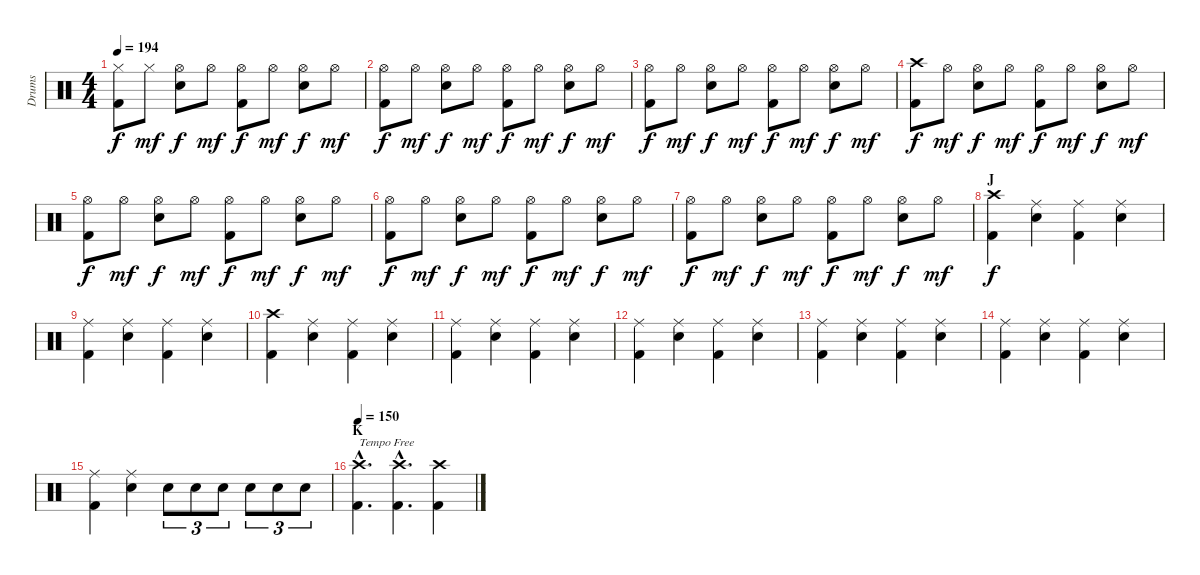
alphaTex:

\track ("Drums" "Drums") {instrument percussion}
\staff {score}
\articulation defaults
\ts (4 4)
\tempo 194
\clef neutral
\ks c
("Hi-Hat (closed)" "Kick (hit) 2").8{dy f} "Hi-Hat (closed)".8{dy mf} ("Hi-Hat (open)" "Electric Snare (hit)").8{dy f} "Hi-Hat (open)".8{dy mf} ("Hi-Hat (open)" "Kick (hit) 2").8{dy f} "Hi-Hat (open)".8{dy mf} ("Hi-Hat (open)" "Electric Snare (hit)").8{dy f} "Hi-Hat (open)".8{dy mf} |
("Hi-Hat (open)" "Kick (hit) 2").8{dy f} "Hi-Hat (open)".8{dy mf} ("Hi-Hat (open)" "Electric Snare (hit)").8{dy f} "Hi-Hat (open)".8{dy mf} ("Hi-Hat (open)" "Kick (hit) 2").8{dy f} "Hi-Hat (open)".8{dy mf} ("Hi-Hat (open)" "Electric Snare (hit)").8{dy f} "Hi-Hat (open)".8{dy mf} |
("Hi-Hat (open)" "Kick (hit) 2").8{dy f} "Hi-Hat (open)".8{dy mf} ("Hi-Hat (open)" "Electric Snare (hit)").8{dy f} "Hi-Hat (open)".8{dy mf} ("Hi-Hat (open)" "Kick (hit) 2").8{dy f} "Hi-Hat (open)".8{dy mf} ("Hi-Hat (open)" "Electric Snare (hit)").8{dy f} "Hi-Hat (open)".8{dy mf} |
("Crash high (hit)" "Kick (hit) 2").8{dy f} "Hi-Hat (open)".8{dy mf} ("Hi-Hat (open)" "Electric Snare (hit)").8{dy f} "Hi-Hat (open)".8{dy mf} ("Hi-Hat (open)" "Kick (hit) 2").8{dy f} "Hi-Hat (open)".8{dy mf} ("Hi-Hat (open)" "Electric Snare (hit)").8{dy f} "Hi-Hat (open)".8{dy mf} |
("Hi-Hat (open)" "Kick (hit) 2").8{dy f} "Hi-Hat (open)".8{dy mf} ("Hi-Hat (open)" "Electric Snare (hit)").8{dy f} "Hi-Hat (open)".8{dy mf} ("Hi-Hat (open)" "Kick (hit) 2").8{dy f} "Hi-Hat (open)".8{dy mf} ("Hi-Hat (open)" "Electric Snare (hit)").8{dy f} "Hi-Hat (open)".8{dy mf} |
("Hi-Hat (open)" "Kick (hit) 2").8{dy f} "Hi-Hat (open)".8{dy mf} ("Hi-Hat (open)" "Electric Snare (hit)").8{dy f} "Hi-Hat (open)".8{dy mf} ("Hi-Hat (open)" "Kick (hit) 2").8{dy f} "Hi-Hat (open)".8{dy mf} ("Hi-Hat (open)" "Electric Snare (hit)").8{dy f} "Hi-Hat (open)".8{dy mf} |
("Hi-Hat (open)" "Kick (hit) 2").8{dy f} "Hi-Hat (open)".8{dy mf} ("Hi-Hat (open)" "Electric Snare (hit)").8{dy f} "Hi-Hat (open)".8{dy mf} ("Hi-Hat (open)" "Kick (hit) 2").8{dy f} "Hi-Hat (open)".8{dy mf} ("Hi-Hat (open)" "Electric Snare (hit)").8{dy f} "Hi-Hat (open)".8{dy mf} |
\section ("" "J")
("Crash high (hit)" "Kick (hit) 2").4{dy f} ("Ride (middle)" "Electric Snare (hit)").4 ("Ride (middle)" "Kick (hit) 2").4 ("Ride (middle)" "Electric Snare (hit)").4 |
("Ride (middle)" "Kick (hit) 2").4 ("Ride (middle)" "Electric Snare (hit)").4 ("Ride (middle)" "Kick (hit) 2").4 ("Ride (middle)" "Electric Snare (hit)").4 |
("Crash high (hit)" "Kick (hit) 2").4 ("Ride (middle)" "Electric Snare (hit)").4 ("Ride (middle)" "Kick (hit) 2").4 ("Ride (middle)" "Electric Snare (hit)").4 |
("Ride (middle)" "Kick (hit) 2").4 ("Ride (middle)" "Electric Snare (hit)").4 ("Ride (middle)" "Kick (hit) 2").4 ("Ride (middle)" "Electric Snare (hit)").4 |
("Ride (middle)" "Kick (hit) 2").4 ("Ride (middle)" "Electric Snare (hit)").4 ("Ride (middle)" "Kick (hit) 2").4 ("Ride (middle)" "Electric Snare (hit)").4 |
("Ride (middle)" "Kick (hit) 2").4 ("Ride (middle)" "Electric Snare (hit)").4 ("Ride (middle)" "Kick (hit) 2").4 ("Ride (middle)" "Electric Snare (hit)").4 |
("Ride (middle)" "Kick (hit) 2").4 ("Ride (middle)" "Electric Snare (hit)").4 ("Ride (middle)" "Kick (hit) 2").4 ("Ride (middle)" "Electric Snare (hit)").4 |
("Ride (middle)" "Kick (hit) 2").4 ("Ride (middle)" "Electric Snare (hit)").4 "Electric Snare (hit)".8{tu (3 2)} "Electric Snare (hit)".8{tu (3 2)} "Electric Snare (hit)".8{tu (3 2)} "Electric Snare (hit)".8{tu (3 2)} "Electric Snare (hit)".8{tu (3 2)} "Electric Snare (hit)".8{tu (3 2)} |
\section ("" "K")
\tempo 150
("Crash high (hit)"{hac} "Kick (hit) 2"{hac}).4{d txt "Tempo Free"} ("Crash high (hit)"{hac} "Kick (hit) 2"{hac}).4{d} ("Crash high (hit)" "Kick (hit) 2").4
